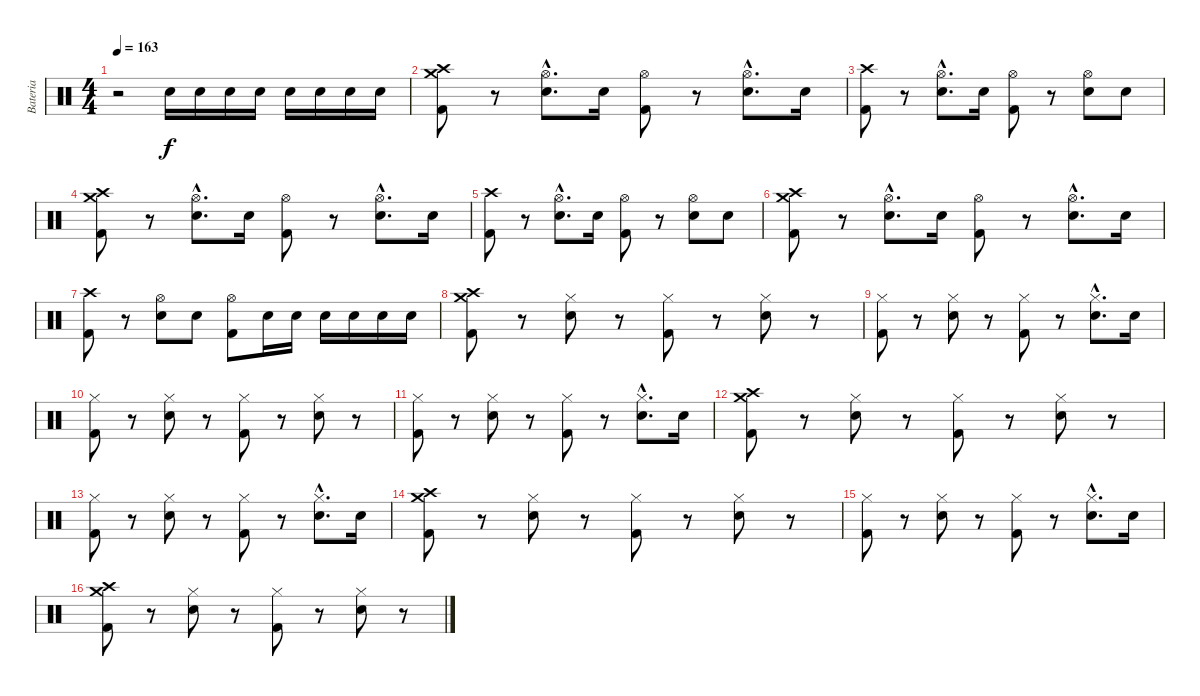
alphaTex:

\track ("Bateria" "Bateria") {instrument percussion}
\staff {score}
\articulation defaults
\ts (4 4)
\tempo 163
\clef neutral
\ks c
r.2{dy f} "Snare (hit) 2".16 "Snare (hit) 2".16 "Snare (hit) 2".16 "Snare (hit) 2".16 "Snare (hit) 2".16 "Snare (hit) 2".16 "Snare (hit) 2".16 "Snare (hit) 2".16 |
("Crash high (hit)" "Crash medium (hit)" "Kick (hit) 2").8 r.8 ("Hi-Hat (open)"{hac} "Snare (hit) 2"{hac}).8{d} "Snare (hit) 2".16 ("Hi-Hat (open)" "Kick (hit) 2").8 r.8 ("Hi-Hat (open)"{hac} "Snare (hit) 2"{hac}).8{d} "Snare (hit) 2".16 |
("Crash high (hit)" "Kick (hit) 2").8 r.8 ("Hi-Hat (open)"{hac} "Snare (hit) 2"{hac}).8{d} "Snare (hit) 2".16 ("Hi-Hat (open)" "Kick (hit) 2").8 r.8 ("Hi-Hat (open)" "Snare (hit) 2").8 "Snare (hit) 2".8 |
("Crash high (hit)" "Crash medium (hit)" "Kick (hit) 2").8 r.8 ("Hi-Hat (open)"{hac} "Snare (hit) 2"{hac}).8{d} "Snare (hit) 2".16 ("Hi-Hat (open)" "Kick (hit) 2").8 r.8 ("Hi-Hat (open)"{hac} "Snare (hit) 2"{hac}).8{d} "Snare (hit) 2".16 |
("Crash high (hit)" "Kick (hit) 2").8 r.8 ("Hi-Hat (open)"{hac} "Snare (hit) 2"{hac}).8{d} "Snare (hit) 2".16 ("Hi-Hat (open)" "Kick (hit) 2").8 r.8 ("Hi-Hat (open)" "Snare (hit) 2").8 "Snare (hit) 2".8 |
("Crash high (hit)" "Crash medium (hit)" "Kick (hit) 2").8 r.8 ("Hi-Hat (open)"{hac} "Snare (hit) 2"{hac}).8{d} "Snare (hit) 2".16 ("Hi-Hat (open)" "Kick (hit) 2").8 r.8 ("Hi-Hat (open)"{hac} "Snare (hit) 2"{hac}).8{d} "Snare (hit) 2".16 |
("Crash high (hit)" "Kick (hit) 2").8 r.8 ("Hi-Hat (open)" "Snare (hit) 2").8 "Snare (hit) 2".8 ("Hi-Hat (open)" "Kick (hit) 2").8 "Snare (hit) 2".16 "Snare (hit) 2".16 "Snare (hit) 2".16 "Snare (hit) 2".16 "Snare (hit) 2".16 "Snare (hit) 2".16 |
("Crash high (hit)" "Crash medium (hit)" "Kick (hit) 2").8 r.8 ("Hi-Hat (closed)" "Snare (hit) 2").8 r.8 ("Hi-Hat (closed)" "Kick (hit) 2").8 r.8 ("Hi-Hat (closed)" "Snare (hit) 2").8 r.8 |
("Hi-Hat (closed)" "Kick (hit) 2").8 r.8 ("Hi-Hat (closed)" "Snare (hit) 2").8 r.8 ("Hi-Hat (closed)" "Kick (hit) 2").8 r.8 ("Hi-Hat (closed)"{hac} "Snare (hit) 2"{hac}).8{d} "Snare (hit) 2".16 |
("Hi-Hat (closed)" "Kick (hit) 2").8 r.8 ("Hi-Hat (closed)" "Snare (hit) 2").8 r.8 ("Hi-Hat (closed)" "Kick (hit) 2").8 r.8 ("Hi-Hat (closed)" "Snare (hit) 2").8 r.8 |
("Hi-Hat (closed)" "Kick (hit) 2").8 r.8 ("Hi-Hat (closed)" "Snare (hit) 2").8 r.8 ("Hi-Hat (closed)" "Kick (hit) 2").8 r.8 ("Hi-Hat (closed)"{hac} "Snare (hit) 2"{hac}).8{d} "Snare (hit) 2".16 |
("Crash high (hit)" "Crash medium (hit)" "Kick (hit) 2").8 r.8 ("Hi-Hat (closed)" "Snare (hit) 2").8 r.8 ("Hi-Hat (closed)" "Kick (hit) 2").8 r.8 ("Hi-Hat (closed)" "Snare (hit) 2").8 r.8 |
("Hi-Hat (closed)" "Kick (hit) 2").8 r.8 ("Hi-Hat (closed)" "Snare (hit) 2").8 r.8 ("Hi-Hat (closed)" "Kick (hit) 2").8 r.8 ("Hi-Hat (closed)"{hac} "Snare (hit) 2"{hac}).8{d} "Snare (hit) 2".16 |
("Crash high (hit)" "Crash medium (hit)" "Kick (hit) 2").8 r.8 ("Hi-Hat (closed)" "Snare (hit) 2").8 r.8 ("Hi-Hat (closed)" "Kick (hit) 2").8 r.8 ("Hi-Hat (closed)" "Snare (hit) 2").8 r.8 |
("Hi-Hat (closed)" "Kick (hit) 2").8 r.8 ("Hi-Hat (closed)" "Snare (hit) 2").8 r.8 ("Hi-Hat (closed)" "Kick (hit) 2").8 r.8 ("Hi-Hat (closed)"{hac} "Snare (hit) 2"{hac}).8{d} "Snare (hit) 2".16 |
("Crash high (hit)" "Crash medium (hit)" "Kick (hit) 2").8 r.8 ("Hi-Hat (closed)" "Snare (hit) 2").8 r.8 ("Hi-Hat (closed)" "Kick (hit) 2").8 r.8 ("Hi-Hat (closed)" "Snare (hit) 2").8 r.8
